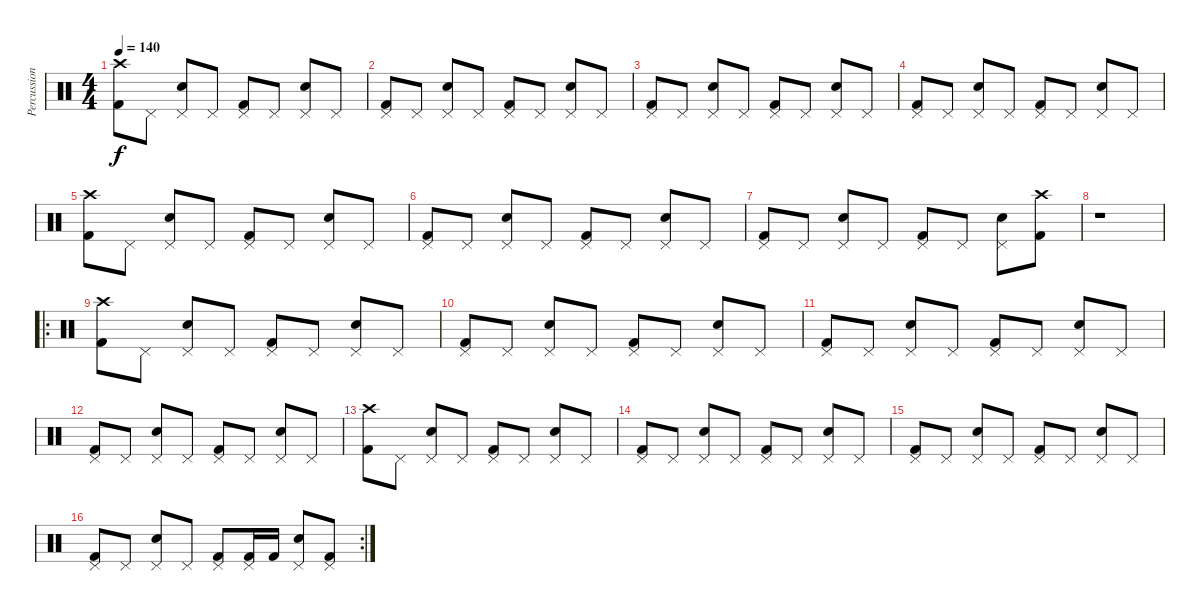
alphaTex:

\track ("Percussion" "Percussion") {instrument percussion}
\staff {score}
\articulation defaults
\ts (4 4)
\tempo 140
\clef neutral
\ks c
("Crash high (hit)" "Kick (hit) 2").8{dy f} "Pedal Hi-Hat (hit)".8 ("Pedal Hi-Hat (hit)" "Snare (hit) 2").8 "Pedal Hi-Hat (hit)".8 ("Pedal Hi-Hat (hit)" "Kick (hit) 2").8 "Pedal Hi-Hat (hit)".8 ("Pedal Hi-Hat (hit)" "Snare (hit) 2").8 "Pedal Hi-Hat (hit)".8 |
("Pedal Hi-Hat (hit)" "Kick (hit) 2").8 "Pedal Hi-Hat (hit)".8 ("Pedal Hi-Hat (hit)" "Snare (hit) 2").8 "Pedal Hi-Hat (hit)".8 ("Pedal Hi-Hat (hit)" "Kick (hit) 2").8 "Pedal Hi-Hat (hit)".8 ("Pedal Hi-Hat (hit)" "Snare (hit) 2").8 "Pedal Hi-Hat (hit)".8 |
("Pedal Hi-Hat (hit)" "Kick (hit) 2").8 "Pedal Hi-Hat (hit)".8 ("Pedal Hi-Hat (hit)" "Snare (hit) 2").8 "Pedal Hi-Hat (hit)".8 ("Pedal Hi-Hat (hit)" "Kick (hit) 2").8 "Pedal Hi-Hat (hit)".8 ("Pedal Hi-Hat (hit)" "Snare (hit) 2").8 "Pedal Hi-Hat (hit)".8 |
("Pedal Hi-Hat (hit)" "Kick (hit) 2").8 "Pedal Hi-Hat (hit)".8 ("Pedal Hi-Hat (hit)" "Snare (hit) 2").8 "Pedal Hi-Hat (hit)".8 ("Pedal Hi-Hat (hit)" "Kick (hit) 2").8 "Pedal Hi-Hat (hit)".8 ("Pedal Hi-Hat (hit)" "Snare (hit) 2").8 "Pedal Hi-Hat (hit)".8 |
("Crash high (hit)" "Kick (hit) 2").8 "Pedal Hi-Hat (hit)".8 ("Pedal Hi-Hat (hit)" "Snare (hit) 2").8 "Pedal Hi-Hat (hit)".8 ("Pedal Hi-Hat (hit)" "Kick (hit) 2").8 "Pedal Hi-Hat (hit)".8 ("Pedal Hi-Hat (hit)" "Snare (hit) 2").8 "Pedal Hi-Hat (hit)".8 |
("Pedal Hi-Hat (hit)" "Kick (hit) 2").8 "Pedal Hi-Hat (hit)".8 ("Pedal Hi-Hat (hit)" "Snare (hit) 2").8 "Pedal Hi-Hat (hit)".8 ("Pedal Hi-Hat (hit)" "Kick (hit) 2").8 "Pedal Hi-Hat (hit)".8 ("Pedal Hi-Hat (hit)" "Snare (hit) 2").8 "Pedal Hi-Hat (hit)".8 |
("Pedal Hi-Hat (hit)" "Kick (hit) 2").8 "Pedal Hi-Hat (hit)".8 ("Pedal Hi-Hat (hit)" "Snare (hit) 2").8 "Pedal Hi-Hat (hit)".8 ("Pedal Hi-Hat (hit)" "Kick (hit) 2").8 "Pedal Hi-Hat (hit)".8 ("Pedal Hi-Hat (hit)" "Snare (hit) 2").8 ("Crash high (hit)" "Kick (hit) 2").8 |
r.1 |
\ro
("Crash high (hit)" "Kick (hit) 2").8 "Pedal Hi-Hat (hit)".8 ("Pedal Hi-Hat (hit)" "Snare (hit) 2").8 "Pedal Hi-Hat (hit)".8 ("Pedal Hi-Hat (hit)" "Kick (hit) 2").8 "Pedal Hi-Hat (hit)".8 ("Pedal Hi-Hat (hit)" "Snare (hit) 2").8 "Pedal Hi-Hat (hit)".8 |
("Pedal Hi-Hat (hit)" "Kick (hit) 2").8 "Pedal Hi-Hat (hit)".8 ("Pedal Hi-Hat (hit)" "Snare (hit) 2").8 "Pedal Hi-Hat (hit)".8 ("Pedal Hi-Hat (hit)" "Kick (hit) 2").8 "Pedal Hi-Hat (hit)".8 ("Pedal Hi-Hat (hit)" "Snare (hit) 2").8 "Pedal Hi-Hat (hit)".8 |
("Pedal Hi-Hat (hit)" "Kick (hit) 2").8 "Pedal Hi-Hat (hit)".8 ("Pedal Hi-Hat (hit)" "Snare (hit) 2").8 "Pedal Hi-Hat (hit)".8 ("Pedal Hi-Hat (hit)" "Kick (hit) 2").8 "Pedal Hi-Hat (hit)".8 ("Pedal Hi-Hat (hit)" "Snare (hit) 2").8 "Pedal Hi-Hat (hit)".8 |
("Pedal Hi-Hat (hit)" "Kick (hit) 2").8 "Pedal Hi-Hat (hit)".8 ("Pedal Hi-Hat (hit)" "Snare (hit) 2").8 "Pedal Hi-Hat (hit)".8 ("Pedal Hi-Hat (hit)" "Kick (hit) 2").8 "Pedal Hi-Hat (hit)".8 ("Pedal Hi-Hat (hit)" "Snare (hit) 2").8 "Pedal Hi-Hat (hit)".8 |
("Crash high (hit)" "Kick (hit) 2").8 "Pedal Hi-Hat (hit)".8 ("Pedal Hi-Hat (hit)" "Snare (hit) 2").8 "Pedal Hi-Hat (hit)".8 ("Pedal Hi-Hat (hit)" "Kick (hit) 2").8 "Pedal Hi-Hat (hit)".8 ("Pedal Hi-Hat (hit)" "Snare (hit) 2").8 "Pedal Hi-Hat (hit)".8 |
("Pedal Hi-Hat (hit)" "Kick (hit) 2").8 "Pedal Hi-Hat (hit)".8 ("Pedal Hi-Hat (hit)" "Snare (hit) 2").8 "Pedal Hi-Hat (hit)".8 ("Pedal Hi-Hat (hit)" "Kick (hit) 2").8 "Pedal Hi-Hat (hit)".8 ("Pedal Hi-Hat (hit)" "Snare (hit) 2").8 "Pedal Hi-Hat (hit)".8 |
("Pedal Hi-Hat (hit)" "Kick (hit) 2").8 "Pedal Hi-Hat (hit)".8 ("Pedal Hi-Hat (hit)" "Snare (hit) 2").8 "Pedal Hi-Hat (hit)".8 ("Pedal Hi-Hat (hit)" "Kick (hit) 2").8 "Pedal Hi-Hat (hit)".8 ("Pedal Hi-Hat (hit)" "Snare (hit) 2").8 "Pedal Hi-Hat (hit)".8 |
\rc 2
("Pedal Hi-Hat (hit)" "Kick (hit) 2").8 "Pedal Hi-Hat (hit)".8 ("Pedal Hi-Hat (hit)" "Snare (hit) 2").8 "Pedal Hi-Hat (hit)".8 ("Pedal Hi-Hat (hit)" "Kick (hit) 2").8 ("Pedal Hi-Hat (hit)" "Kick (hit) 2").16 "Kick (hit) 2".16 ("Pedal Hi-Hat (hit)" "Snare (hit) 2").8 ("Pedal Hi-Hat (hit)" "Kick (hit) 2").8
